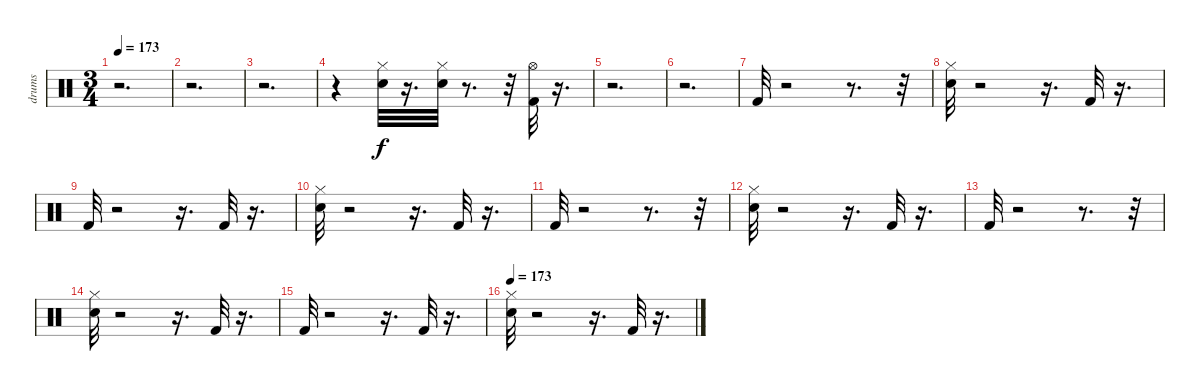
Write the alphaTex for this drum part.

\track ("drums" "drums") {instrument percussion}
\staff {score}
\articulation defaults
\ts (3 4)
\tempo 173
\clef neutral
\ks c
r.2{d dy f} |
r.2{d} |
r.2{d} |
r.4 ("Hi-Hat (closed)" "Snare (hit) 2").32 r.16{d} ("Hi-Hat (closed)" "Snare (hit) 2").32 r.8{d} r.32 ("Hi-Hat (open)" "Kick (hit) 2").32 r.16{d} |
r.2{d} |
r.2{d} |
"Kick (hit) 2".32 r.2 r.8{d} r.32 |
("Hi-Hat (closed)" "Snare (hit) 2").32 r.2 r.16{d} "Kick (hit) 2".32 r.16{d} |
"Kick (hit) 2".32 r.2 r.16{d} "Kick (hit) 2".32 r.16{d} |
("Hi-Hat (closed)" "Snare (hit) 2").32 r.2 r.16{d} "Kick (hit) 2".32 r.16{d} |
"Kick (hit) 2".32 r.2 r.8{d} r.32 |
("Hi-Hat (closed)" "Snare (hit) 2").32 r.2 r.16{d} "Kick (hit) 2".32 r.16{d} |
"Kick (hit) 2".32 r.2 r.8{d} r.32 |
("Hi-Hat (closed)" "Snare (hit) 2").32 r.2 r.16{d} "Kick (hit) 2".32 r.16{d} |
"Kick (hit) 2".32 r.2 r.16{d} "Kick (hit) 2".32 r.16{d} |
\tempo 173
("Hi-Hat (closed)" "Snare (hit) 2").32 r.2 r.16{d} "Kick (hit) 2".32 r.16{d}
